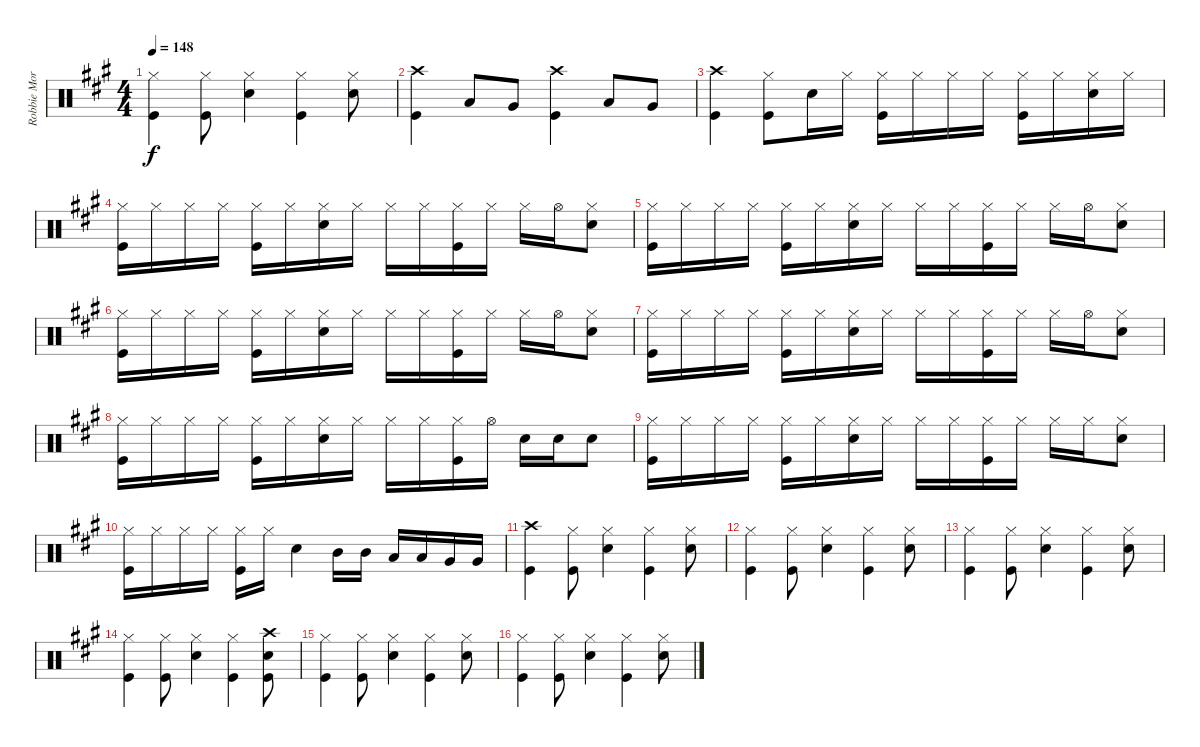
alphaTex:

\track ("Robbie Morris Drums" "Robbie Mor") {instrument percussion}
\staff {score}
\articulation defaults
\ts (4 4)
\tempo 148
\clef neutral
\ks a
("Hi-Hat (closed)" "Kick (hit)").4{dy f} ("Hi-Hat (closed)" "Kick (hit)").8 ("Hi-Hat (closed)" "Snare (hit) 2").4 ("Hi-Hat (closed)" "Kick (hit)").4 ("Hi-Hat (closed)" "Snare (hit) 2").8 |
("Crash high (hit)" "Kick (hit)").4 "Low Tom (hit)".8 "Very Low Tom (hit)".8 ("Crash high (hit)" "Kick (hit)").4 "Low Tom (hit)".8 "Very Low Tom (hit)".8 |
("Crash high (hit)" "Kick (hit)").4 ("Hi-Hat (closed)" "Kick (hit)").8 "Snare (hit) 2".16 "Hi-Hat (closed)".16 ("Hi-Hat (closed)" "Kick (hit)").16 "Hi-Hat (closed)".16 "Hi-Hat (closed)".16 "Hi-Hat (closed)".16 ("Hi-Hat (closed)" "Kick (hit)").16 "Hi-Hat (closed)".16 ("Hi-Hat (closed)" "Snare (hit) 2").16 "Hi-Hat (closed)".16 |
("Hi-Hat (closed)" "Kick (hit)").16 "Hi-Hat (closed)".16 "Hi-Hat (closed)".16 "Hi-Hat (closed)".16 ("Hi-Hat (closed)" "Kick (hit)").16 "Hi-Hat (closed)".16 ("Hi-Hat (closed)" "Snare (hit) 2").16 "Hi-Hat (closed)".16 "Hi-Hat (closed)".16 "Hi-Hat (closed)".16 ("Hi-Hat (closed)" "Kick (hit)").16 "Hi-Hat (closed)".16 "Hi-Hat (closed)".16 "Hi-Hat (open)".16 ("Hi-Hat (closed)" "Snare (hit) 2").8 |
("Hi-Hat (closed)" "Kick (hit)").16 "Hi-Hat (closed)".16 "Hi-Hat (closed)".16 "Hi-Hat (closed)".16 ("Hi-Hat (closed)" "Kick (hit)").16 "Hi-Hat (closed)".16 ("Hi-Hat (closed)" "Snare (hit) 2").16 "Hi-Hat (closed)".16 "Hi-Hat (closed)".16 "Hi-Hat (closed)".16 ("Hi-Hat (closed)" "Kick (hit)").16 "Hi-Hat (closed)".16 "Hi-Hat (closed)".16 "Hi-Hat (open)".16 ("Hi-Hat (closed)" "Snare (hit) 2").8 |
("Hi-Hat (closed)" "Kick (hit)").16 "Hi-Hat (closed)".16 "Hi-Hat (closed)".16 "Hi-Hat (closed)".16 ("Hi-Hat (closed)" "Kick (hit)").16 "Hi-Hat (closed)".16 ("Hi-Hat (closed)" "Snare (hit) 2").16 "Hi-Hat (closed)".16 "Hi-Hat (closed)".16 "Hi-Hat (closed)".16 ("Hi-Hat (closed)" "Kick (hit)").16 "Hi-Hat (closed)".16 "Hi-Hat (closed)".16 "Hi-Hat (open)".16 ("Hi-Hat (closed)" "Snare (hit) 2").8 |
("Hi-Hat (closed)" "Kick (hit)").16 "Hi-Hat (closed)".16 "Hi-Hat (closed)".16 "Hi-Hat (closed)".16 ("Hi-Hat (closed)" "Kick (hit)").16 "Hi-Hat (closed)".16 ("Hi-Hat (closed)" "Snare (hit) 2").16 "Hi-Hat (closed)".16 "Hi-Hat (closed)".16 "Hi-Hat (closed)".16 ("Hi-Hat (closed)" "Kick (hit)").16 "Hi-Hat (closed)".16 "Hi-Hat (closed)".16 "Hi-Hat (open)".16 ("Hi-Hat (closed)" "Snare (hit) 2").8 |
("Hi-Hat (closed)" "Kick (hit)").16 "Hi-Hat (closed)".16 "Hi-Hat (closed)".16 "Hi-Hat (closed)".16 ("Hi-Hat (closed)" "Kick (hit)").16 "Hi-Hat (closed)".16 ("Hi-Hat (closed)" "Snare (hit) 2").16 "Hi-Hat (closed)".16 "Hi-Hat (closed)".16 "Hi-Hat (closed)".16 ("Hi-Hat (closed)" "Kick (hit)").16 "Hi-Hat (open)".16 "Snare (hit) 2".16 "Snare (hit) 2".16 "Snare (hit) 2".8 |
("Hi-Hat (closed)" "Kick (hit)").16 "Hi-Hat (closed)".16 "Hi-Hat (closed)".16 "Hi-Hat (closed)".16 ("Hi-Hat (closed)" "Kick (hit)").16 "Hi-Hat (closed)".16 ("Hi-Hat (closed)" "Snare (hit) 2").16 "Hi-Hat (closed)".16 "Hi-Hat (closed)".16 "Hi-Hat (closed)".16 ("Hi-Hat (closed)" "Kick (hit)").16 "Hi-Hat (closed)".16 "Hi-Hat (closed)".16 "Hi-Hat (closed)".16 ("Hi-Hat (closed)" "Snare (hit) 2").8 |
("Hi-Hat (closed)" "Kick (hit)").16 "Hi-Hat (closed)".16 "Hi-Hat (closed)".16 "Hi-Hat (closed)".16 ("Hi-Hat (closed)" "Kick (hit)").16 "Hi-Hat (closed)".16 "Snare (hit) 2".4 "Mid Tom (hit)".16 "Mid Tom (hit)".16 "Low Tom (hit)".16 "Low Tom (hit)".16 "Very Low Tom (hit)".16 "Very Low Tom (hit)".16 |
("Crash high (hit)" "Kick (hit)").4 ("Hi-Hat (closed)" "Kick (hit)").8 ("Hi-Hat (closed)" "Snare (hit) 2").4 ("Hi-Hat (closed)" "Kick (hit)").4 ("Hi-Hat (closed)" "Snare (hit) 2").8 |
("Hi-Hat (closed)" "Kick (hit)").4 ("Hi-Hat (closed)" "Kick (hit)").8 ("Hi-Hat (closed)" "Snare (hit) 2").4 ("Hi-Hat (closed)" "Kick (hit)").4 ("Hi-Hat (closed)" "Snare (hit) 2").8 |
("Hi-Hat (closed)" "Kick (hit)").4 ("Hi-Hat (closed)" "Kick (hit)").8 ("Hi-Hat (closed)" "Snare (hit) 2").4 ("Hi-Hat (closed)" "Kick (hit)").4 ("Hi-Hat (closed)" "Snare (hit) 2").8 |
("Hi-Hat (closed)" "Kick (hit)").4 ("Hi-Hat (closed)" "Kick (hit)").8 ("Hi-Hat (closed)" "Snare (hit) 2").4 ("Hi-Hat (closed)" "Kick (hit)").4 ("Crash high (hit)" "Snare (hit) 2" "Kick (hit)").8 |
("Hi-Hat (closed)" "Kick (hit)").4 ("Hi-Hat (closed)" "Kick (hit)").8 ("Hi-Hat (closed)" "Snare (hit) 2").4 ("Hi-Hat (closed)" "Kick (hit)").4 ("Hi-Hat (closed)" "Snare (hit) 2").8 |
("Hi-Hat (closed)" "Kick (hit)").4 ("Hi-Hat (closed)" "Kick (hit)").8 ("Hi-Hat (closed)" "Snare (hit) 2").4 ("Hi-Hat (closed)" "Kick (hit)").4 ("Hi-Hat (closed)" "Snare (hit) 2").8
